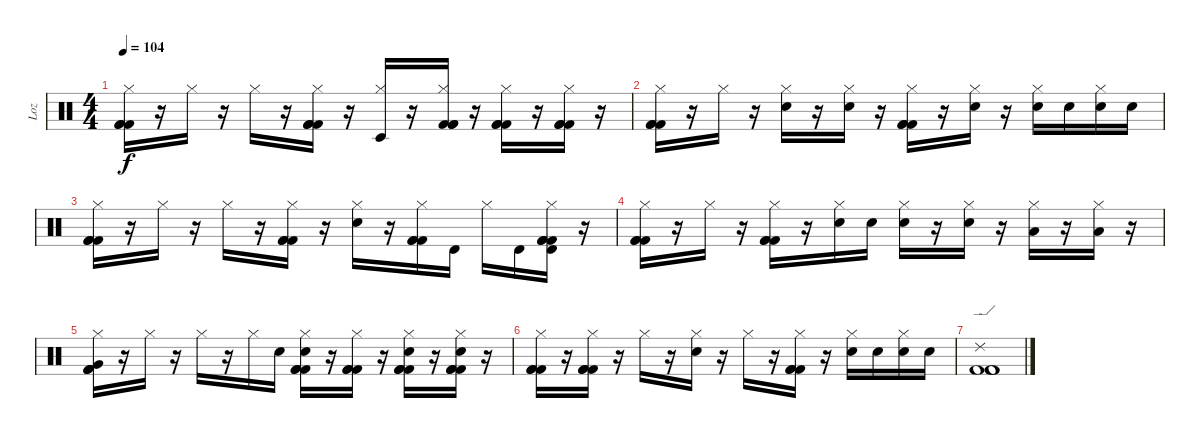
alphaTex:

\track ("Loz" "Loz") {instrument percussion}
\staff {score}
\articulation defaults
\ts (4 4)
\tempo 104
\clef neutral
\ks c
("Hi-Hat (closed)" "Kick (hit) 2" "Kick (hit) 2" "Kick (hit) 2").16{dy f} r.16 "Hi-Hat (closed)".16 r.16 "Hi-Hat (closed)".16 r.16 ("Hi-Hat (closed)" "Kick (hit) 2" "Kick (hit) 2" "Kick (hit) 2").16 r.16 ("Hi-Hat (closed)" "Timbale low (hit)").16 r.16 ("Hi-Hat (closed)" "Kick (hit) 2" "Kick (hit) 2" "Kick (hit) 2").16 r.16 ("Hi-Hat (closed)" "Kick (hit) 2" "Kick (hit) 2" "Kick (hit) 2").16 r.16 ("Hi-Hat (closed)" "Kick (hit) 2" "Kick (hit) 2" "Kick (hit) 2").16 r.16 |
("Hi-Hat (closed)" "Kick (hit) 2" "Kick (hit) 2" "Kick (hit) 2").16 r.16 "Hi-Hat (closed)".16 r.16 ("Hi-Hat (closed)" "Electric Snare (hit)").16 r.16 ("Hi-Hat (closed)" "Electric Snare (hit)").16 r.16 ("Hi-Hat (closed)" "Kick (hit) 2" "Kick (hit) 2" "Kick (hit) 2").16 r.16 ("Hi-Hat (closed)" "Electric Snare (hit)").16 r.16 ("Hi-Hat (closed)" "Electric Snare (hit)").16 "Electric Snare (hit)".16 ("Hi-Hat (closed)" "Electric Snare (hit)").16 "Electric Snare (hit)".16 |
("Hi-Hat (closed)" "Kick (hit) 2" "Kick (hit) 2" "Kick (hit) 2").16 r.16 "Hi-Hat (closed)".16 r.16 "Hi-Hat (closed)".16 r.16 ("Hi-Hat (closed)" "Kick (hit) 2" "Kick (hit) 2" "Kick (hit) 2").16 r.16 ("Hi-Hat (closed)" "Electric Snare (hit)").16 r.16 ("Hi-Hat (closed)" "Kick (hit) 2" "Kick (hit) 2" "Kick (hit) 2").16 "Timbale high (hit)".16 "Hi-Hat (closed)".16 "Timbale high (hit)".16 ("Hi-Hat (closed)" "Timbale high (hit)" "Kick (hit) 2" "Kick (hit) 2" "Kick (hit) 2").16 r.16 |
("Hi-Hat (closed)" "Kick (hit) 2" "Kick (hit) 2" "Kick (hit) 2").16 r.16 "Hi-Hat (closed)".16 r.16 ("Hi-Hat (closed)" "Kick (hit) 2" "Kick (hit) 2" "Kick (hit) 2").16 r.16 ("Hi-Hat (closed)" "Electric Snare (hit)").16 "Electric Snare (hit)".16 ("Hi-Hat (closed)" "Electric Snare (hit)").16 r.16 ("Hi-Hat (closed)" "Electric Snare (hit)").16 r.16 ("Hi-Hat (closed)" "Low Tom (hit)").16 r.16 ("Hi-Hat (closed)" "Low Floor Tom (hit)").16 r.16 |
("Hi-Hat (closed)" "Very Low Tom (hit)" "Kick (hit) 2" "Kick (hit) 2" "Kick (hit) 2").16 r.16 "Hi-Hat (closed)".16 r.16 "Hi-Hat (closed)".16 r.16 "Hi-Hat (closed)".16 "Electric Snare (hit)".16 ("Hi-Hat (closed)" "Electric Snare (hit)" "Kick (hit) 2" "Kick (hit) 2" "Kick (hit) 2").16 r.16 ("Hi-Hat (closed)" "Kick (hit) 2" "Kick (hit) 2" "Kick (hit) 2").16 r.16 ("Hi-Hat (closed)" "Electric Snare (hit)" "Kick (hit) 2" "Kick (hit) 2" "Kick (hit) 2").16 r.16 ("Hi-Hat (closed)" "Electric Snare (hit)" "Kick (hit) 2" "Kick (hit) 2" "Kick (hit) 2").16 r.16 |
("Hi-Hat (closed)" "Kick (hit) 2" "Kick (hit) 2" "Kick (hit) 2").16 r.16 ("Hi-Hat (closed)" "Kick (hit) 2" "Kick (hit) 2" "Kick (hit) 2").16 r.16 "Hi-Hat (closed)".16 r.16 ("Hi-Hat (closed)" "Electric Snare (hit)").16 r.16 "Hi-Hat (closed)".16 r.16 ("Hi-Hat (closed)" "Kick (hit) 2" "Kick (hit) 2" "Kick (hit) 2").16 r.16 ("Hi-Hat (closed)" "Electric Snare (hit)").16 "Electric Snare (hit)".16 ("Hi-Hat (closed)" "Electric Snare (hit)").16 "Electric Snare (hit)".16 |
("Ride (edge) 2" "Kick (hit) 2" "Kick (hit) 2" "Kick (hit) 2").1
